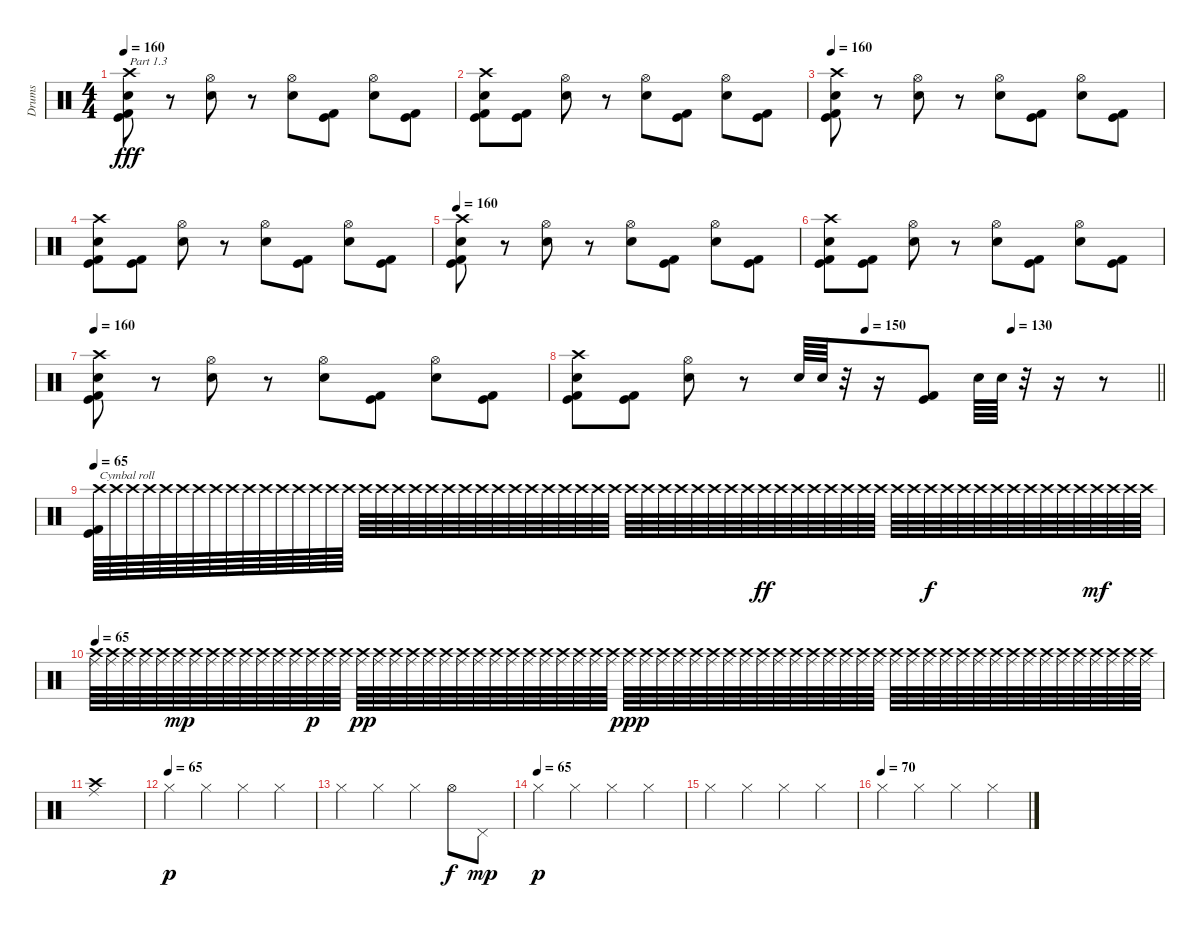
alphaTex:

\track ("Drums" "Drums") {instrument percussion}
\staff {score}
\articulation defaults
\ts (4 4)
\tempo 160
\clef neutral
\ks c
("Electric Snare (hit)" "Kick (hit)" "Kick (hit) 2" "Crash high (hit)").8{txt "Part 1.3" dy fff volume 14} r.8 ("Electric Snare (hit)" "Hi-Hat (open)").8 r.8 ("Electric Snare (hit)" "Hi-Hat (open)").8 ("Kick (hit)" "Kick (hit) 2").8 ("Electric Snare (hit)" "Hi-Hat (open)").8 ("Kick (hit)" "Kick (hit) 2").8 |
("Electric Snare (hit)" "Kick (hit)" "Kick (hit) 2" "Crash high (hit)").8 ("Kick (hit)" "Kick (hit) 2").8 ("Electric Snare (hit)" "Hi-Hat (open)").8 r.8 ("Electric Snare (hit)" "Hi-Hat (open)").8 ("Kick (hit)" "Kick (hit) 2").8 ("Electric Snare (hit)" "Hi-Hat (open)").8 ("Kick (hit)" "Kick (hit) 2").8 |
\tempo 160
("Electric Snare (hit)" "Kick (hit)" "Kick (hit) 2" "Crash high (hit)").8 r.8 ("Electric Snare (hit)" "Hi-Hat (open)").8 r.8 ("Electric Snare (hit)" "Hi-Hat (open)").8 ("Kick (hit)" "Kick (hit) 2").8 ("Electric Snare (hit)" "Hi-Hat (open)").8 ("Kick (hit)" "Kick (hit) 2").8 |
("Electric Snare (hit)" "Kick (hit)" "Kick (hit) 2" "Crash high (hit)").8 ("Kick (hit)" "Kick (hit) 2").8 ("Electric Snare (hit)" "Hi-Hat (open)").8 r.8 ("Electric Snare (hit)" "Hi-Hat (open)").8 ("Kick (hit)" "Kick (hit) 2").8 ("Electric Snare (hit)" "Hi-Hat (open)").8 ("Kick (hit)" "Kick (hit) 2").8 |
\tempo 160
("Electric Snare (hit)" "Kick (hit)" "Kick (hit) 2" "Crash high (hit)").8 r.8 ("Electric Snare (hit)" "Hi-Hat (open)").8 r.8 ("Electric Snare (hit)" "Hi-Hat (open)").8 ("Kick (hit)" "Kick (hit) 2").8 ("Electric Snare (hit)" "Hi-Hat (open)").8 ("Kick (hit)" "Kick (hit) 2").8 |
("Electric Snare (hit)" "Kick (hit)" "Kick (hit) 2" "Crash high (hit)").8 ("Kick (hit)" "Kick (hit) 2").8 ("Electric Snare (hit)" "Hi-Hat (open)").8 r.8 ("Electric Snare (hit)" "Hi-Hat (open)").8 ("Kick (hit)" "Kick (hit) 2").8 ("Electric Snare (hit)" "Hi-Hat (open)").8 ("Kick (hit)" "Kick (hit) 2").8 |
\tempo 160
("Electric Snare (hit)" "Kick (hit)" "Kick (hit) 2" "Crash high (hit)").8 r.8 ("Electric Snare (hit)" "Hi-Hat (open)").8 r.8 ("Electric Snare (hit)" "Hi-Hat (open)").8 ("Kick (hit)" "Kick (hit) 2").8 ("Electric Snare (hit)" "Hi-Hat (open)").8 ("Kick (hit)" "Kick (hit) 2").8 |
\tempo (150 0.5)
\tempo (130 0.75)
\barLineRight lightlight
("Electric Snare (hit)" "Kick (hit)" "Kick (hit) 2" "Crash high (hit)").8 ("Kick (hit)" "Kick (hit) 2").8 ("Electric Snare (hit)" "Hi-Hat (open)").8 r.8 "Electric Snare (hit)".64 "Electric Snare (hit)".64 r.32 r.16 ("Kick (hit)" "Kick (hit) 2").8 "Electric Snare (hit)".64 "Electric Snare (hit)".64 r.32 r.16 r.8 |
\tempo 65
("Kick (hit)" "Kick (hit) 2" "Crash high (hit)").64{txt "Cymbal roll"} "Crash high (hit)".64{balance 4} "Crash high (hit)".64 "Crash high (hit)".64 "Crash high (hit)".64 "Crash high (hit)".64 "Crash high (hit)".64 "Crash high (hit)".64 "Crash high (hit)".64 "Crash high (hit)".64 "Crash high (hit)".64 "Crash high (hit)".64 "Crash high (hit)".64 "Crash high (hit)".64 "Crash high (hit)".64 "Crash high (hit)".64 "Crash high (hit)".64 "Crash high (hit)".64 "Crash high (hit)".64 "Crash high (hit)".64 "Crash high (hit)".64 "Crash high (hit)".64 "Crash high (hit)".64 "Crash high (hit)".64 "Crash high (hit)".64 "Crash high (hit)".64 "Crash high (hit)".64 "Crash high (hit)".64 "Crash high (hit)".64 "Crash high (hit)".64 "Crash high (hit)".64 "Crash high (hit)".64 "Crash high (hit)".64 "Crash high (hit)".64 "Crash high (hit)".64 "Crash high (hit)".64 "Crash high (hit)".64 "Crash high (hit)".64 "Crash high (hit)".64 "Crash high (hit)".64 "Crash high (hit)".64{dy ff} "Crash high (hit)".64 "Crash high (hit)".64 "Crash high (hit)".64 "Crash high (hit)".64 "Crash high (hit)".64 "Crash high (hit)".64 "Crash high (hit)".64 "Crash high (hit)".64 "Crash high (hit)".64 "Crash high (hit)".64{dy f} "Crash high (hit)".64 "Crash high (hit)".64 "Crash high (hit)".64 "Crash high (hit)".64 "Crash high (hit)".64 "Crash high (hit)".64 "Crash high (hit)".64 "Crash high (hit)".64 "Crash high (hit)".64 "Crash high (hit)".64{dy mf} "Crash high (hit)".64 "Crash high (hit)".64 "Crash high (hit)".64 |
\tempo 65
("Ride (middle)" "Crash high (hit)").64 ("Ride (middle)" "Crash high (hit)").64 ("Ride (middle)" "Crash high (hit)").64 ("Ride (middle)" "Crash high (hit)").64 ("Ride (middle)" "Crash high (hit)").64 ("Ride (middle)" "Crash high (hit)").64{dy mp} ("Ride (middle)" "Crash high (hit)").64 ("Ride (middle)" "Crash high (hit)").64 ("Ride (middle)" "Crash high (hit)").64 ("Ride (middle)" "Crash high (hit)").64 ("Ride (middle)" "Crash high (hit)").64 ("Ride (middle)" "Crash high (hit)").64 ("Ride (middle)" "Crash high (hit)").64 ("Ride (middle)" "Crash high (hit)").64{dy p} ("Ride (middle)" "Crash high (hit)").64 ("Ride (middle)" "Crash high (hit)").64 ("Ride (middle)" "Crash high (hit)").64{dy pp} ("Ride (middle)" "Crash high (hit)").64 ("Ride (middle)" "Crash high (hit)").64 ("Ride (middle)" "Crash high (hit)").64 ("Ride (middle)" "Crash high (hit)").64 ("Ride (middle)" "Crash high (hit)").64 ("Ride (middle)" "Crash high (hit)").64 ("Ride (middle)" "Crash high (hit)").64 ("Ride (middle)" "Crash high (hit)").64 ("Ride (middle)" "Crash high (hit)").64 ("Ride (middle)" "Crash high (hit)").64 ("Ride (middle)" "Crash high (hit)").64 ("Ride (middle)" "Crash high (hit)").64 ("Ride (middle)" "Crash high (hit)").64 ("Ride (middle)" "Crash high (hit)").64 ("Ride (middle)" "Crash high (hit)").64 ("Ride (middle)" "Crash high (hit)").64{dy ppp} ("Ride (middle)" "Crash high (hit)").64 ("Ride (middle)" "Crash high (hit)").64 ("Ride (middle)" "Crash high (hit)").64 ("Ride (middle)" "Crash high (hit)").64 ("Ride (middle)" "Crash high (hit)").64 ("Ride (middle)" "Crash high (hit)").64 ("Ride (middle)" "Crash high (hit)").64 ("Ride (middle)" "Crash high (hit)").64 ("Ride (middle)" "Crash high (hit)").64 ("Ride (middle)" "Crash high (hit)").64 ("Ride (middle)" "Crash high (hit)").64 ("Ride (middle)" "Crash high (hit)").64 ("Ride (middle)" "Crash high (hit)").64 ("Ride (middle)" "Crash high (hit)").64 ("Ride (middle)" "Crash high (hit)").64 ("Ride (middle)" "Crash high (hit)").64 ("Ride (middle)" "Crash high (hit)").64 ("Ride (middle)" "Crash high (hit)").64 ("Ride (middle)" "Crash high (hit)").64 ("Ride (middle)" "Crash high (hit)").64 ("Ride (middle)" "Crash high (hit)").64 ("Ride (middle)" "Crash high (hit)").64 ("Ride (middle)" "Crash high (hit)").64 ("Ride (middle)" "Crash high (hit)").64 ("Ride (middle)" "Crash high (hit)").64 ("Ride (middle)" "Crash high (hit)").64 ("Ride (middle)" "Crash high (hit)").64 ("Ride (middle)" "Crash high (hit)").64 ("Ride (middle)" "Crash high (hit)").64 ("Ride (middle)" "Crash high (hit)").64 ("Ride (middle)" "Crash high (hit)").64 |
("Ride (middle)" "Crash high (hit)").1 |
\tempo (65)
"Hi-Hat (closed)".4{dy p balance 4} "Hi-Hat (closed)".4 "Hi-Hat (closed)".4 "Hi-Hat (closed)".4 |
"Hi-Hat (closed)".4 "Hi-Hat (closed)".4 "Hi-Hat (closed)".4 "Hi-Hat (open)".8{dy f} "Pedal Hi-Hat (hit)".8{dy mp} |
\tempo (65)
"Hi-Hat (closed)".4{dy p} "Hi-Hat (closed)".4 "Hi-Hat (closed)".4 "Hi-Hat (closed)".4 |
"Hi-Hat (closed)".4 "Hi-Hat (closed)".4 "Hi-Hat (closed)".4 "Hi-Hat (closed)".4 |
\tempo (70)
"Hi-Hat (closed)".4 "Hi-Hat (closed)".4 "Hi-Hat (closed)".4 "Hi-Hat (closed)".4
